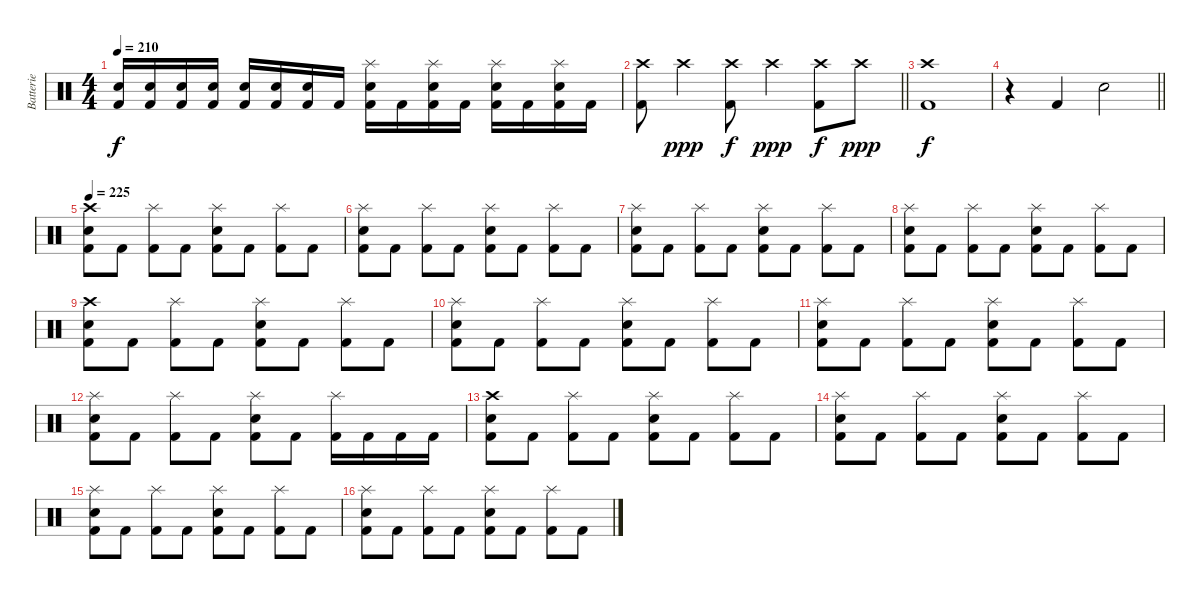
\track ("Batterie" "Batterie") {instrument percussion}
\staff {score}
\articulation defaults
\ts (4 4)
\tempo 210
\clef neutral
\ks c
("Electric Snare (hit)" "Kick (hit) 2").16{dy f} ("Electric Snare (hit)" "Kick (hit) 2").16 ("Electric Snare (hit)" "Kick (hit) 2").16 ("Electric Snare (hit)" "Kick (hit) 2").16 ("Electric Snare (hit)" "Kick (hit) 2").16 ("Electric Snare (hit)" "Kick (hit) 2").16 ("Electric Snare (hit)" "Kick (hit) 2").16 "Kick (hit) 2".16 ("Splash (hit)" "Electric Snare (hit)" "Kick (hit) 2").16 "Kick (hit) 2".16 ("Splash (hit)" "Electric Snare (hit)" "Kick (hit) 2").16 "Kick (hit) 2".16 ("Splash (hit)" "Electric Snare (hit)" "Kick (hit) 2").16 "Kick (hit) 2".16 ("Splash (hit)" "Electric Snare (hit)" "Kick (hit) 2").16 "Kick (hit) 2".16 |
\barLineRight lightlight
("Crash high (hit)" "Kick (hit) 2").8 "Crash high (hit)".4{dy ppp} ("Crash high (hit)" "Kick (hit) 2").8{dy f} "Crash high (hit)".4{dy ppp} ("Crash high (hit)" "Kick (hit) 2").8{dy f} "Crash high (hit)".8{dy ppp} |
("Crash high (hit)" "Kick (hit) 2").1{dy f} |
\barLineRight lightlight
r.4 "Kick (hit) 2".4 "Electric Snare (hit)".2 |
\tempo 225
("Crash high (hit)" "Electric Snare (hit)" "Kick (hit) 2").8 "Kick (hit) 2".8 ("Splash (hit)" "Kick (hit) 2").8 "Kick (hit) 2".8 ("Splash (hit)" "Electric Snare (hit)" "Kick (hit) 2").8 "Kick (hit) 2".8 ("Splash (hit)" "Kick (hit) 2").8 "Kick (hit) 2".8 |
("Splash (hit)" "Electric Snare (hit)" "Kick (hit) 2").8 "Kick (hit) 2".8 ("Splash (hit)" "Kick (hit) 2").8 "Kick (hit) 2".8 ("Splash (hit)" "Electric Snare (hit)" "Kick (hit) 2").8 "Kick (hit) 2".8 ("Splash (hit)" "Kick (hit) 2").8 "Kick (hit) 2".8 |
("Splash (hit)" "Electric Snare (hit)" "Kick (hit) 2").8 "Kick (hit) 2".8 ("Splash (hit)" "Kick (hit) 2").8 "Kick (hit) 2".8 ("Splash (hit)" "Electric Snare (hit)" "Kick (hit) 2").8 "Kick (hit) 2".8 ("Splash (hit)" "Kick (hit) 2").8 "Kick (hit) 2".8 |
("Splash (hit)" "Electric Snare (hit)" "Kick (hit) 2").8 "Kick (hit) 2".8 ("Splash (hit)" "Kick (hit) 2").8 "Kick (hit) 2".8 ("Splash (hit)" "Electric Snare (hit)" "Kick (hit) 2").8 "Kick (hit) 2".8 ("Splash (hit)" "Kick (hit) 2").8 "Kick (hit) 2".8 |
("Crash high (hit)" "Electric Snare (hit)" "Kick (hit) 2").8 "Kick (hit) 2".8 ("Splash (hit)" "Kick (hit) 2").8 "Kick (hit) 2".8 ("Splash (hit)" "Electric Snare (hit)" "Kick (hit) 2").8 "Kick (hit) 2".8 ("Splash (hit)" "Kick (hit) 2").8 "Kick (hit) 2".8 |
("Splash (hit)" "Electric Snare (hit)" "Kick (hit) 2").8 "Kick (hit) 2".8 ("Splash (hit)" "Kick (hit) 2").8 "Kick (hit) 2".8 ("Splash (hit)" "Electric Snare (hit)" "Kick (hit) 2").8 "Kick (hit) 2".8 ("Splash (hit)" "Kick (hit) 2").8 "Kick (hit) 2".8 |
("Splash (hit)" "Electric Snare (hit)" "Kick (hit) 2").8 "Kick (hit) 2".8 ("Splash (hit)" "Kick (hit) 2").8 "Kick (hit) 2".8 ("Splash (hit)" "Electric Snare (hit)" "Kick (hit) 2").8 "Kick (hit) 2".8 ("Splash (hit)" "Kick (hit) 2").8 "Kick (hit) 2".8 |
("Splash (hit)" "Electric Snare (hit)" "Kick (hit) 2").8 "Kick (hit) 2".8 ("Splash (hit)" "Kick (hit) 2").8 "Kick (hit) 2".8 ("Splash (hit)" "Electric Snare (hit)" "Kick (hit) 2").8 "Kick (hit) 2".8 ("Splash (hit)" "Kick (hit) 2").16 "Kick (hit) 2".16 "Kick (hit) 2".16 "Kick (hit) 2".16 |
("Crash high (hit)" "Electric Snare (hit)" "Kick (hit) 2").8 "Kick (hit) 2".8 ("Splash (hit)" "Kick (hit) 2").8 "Kick (hit) 2".8 ("Splash (hit)" "Electric Snare (hit)" "Kick (hit) 2").8 "Kick (hit) 2".8 ("Splash (hit)" "Kick (hit) 2").8 "Kick (hit) 2".8 |
("Splash (hit)" "Electric Snare (hit)" "Kick (hit) 2").8 "Kick (hit) 2".8 ("Splash (hit)" "Kick (hit) 2").8 "Kick (hit) 2".8 ("Splash (hit)" "Electric Snare (hit)" "Kick (hit) 2").8 "Kick (hit) 2".8 ("Splash (hit)" "Kick (hit) 2").8 "Kick (hit) 2".8 |
("Splash (hit)" "Electric Snare (hit)" "Kick (hit) 2").8 "Kick (hit) 2".8 ("Splash (hit)" "Kick (hit) 2").8 "Kick (hit) 2".8 ("Splash (hit)" "Electric Snare (hit)" "Kick (hit) 2").8 "Kick (hit) 2".8 ("Splash (hit)" "Kick (hit) 2").8 "Kick (hit) 2".8 |
("Splash (hit)" "Electric Snare (hit)" "Kick (hit) 2").8 "Kick (hit) 2".8 ("Splash (hit)" "Kick (hit) 2").8 "Kick (hit) 2".8 ("Splash (hit)" "Electric Snare (hit)" "Kick (hit) 2").8 "Kick (hit) 2".8 ("Splash (hit)" "Kick (hit) 2").8 "Kick (hit) 2".8
